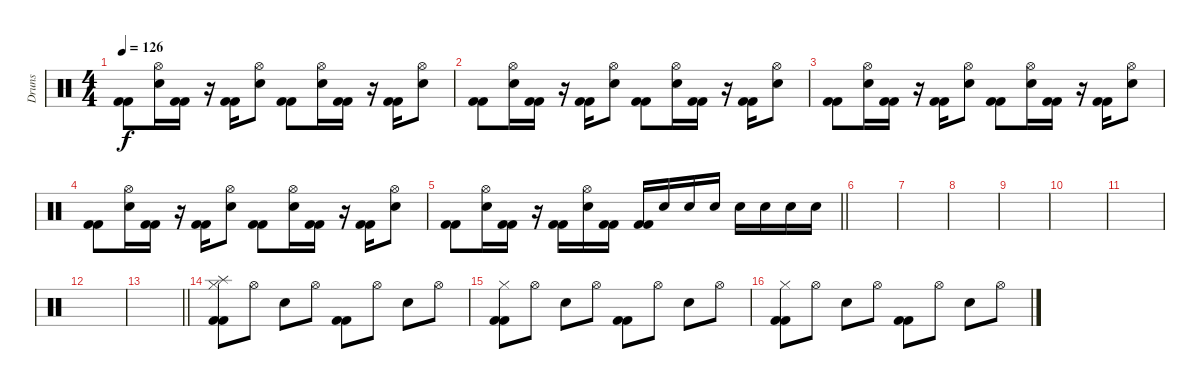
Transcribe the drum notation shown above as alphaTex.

\track ("Druns" "Druns") {instrument percussion}
\staff {score}
\articulation defaults
\ts (4 4)
\tempo 126
\clef neutral
\ks c
("Kick (hit) 2" "Kick (hit) 2").8{dy f} ("Hi-Hat (open)" "Electric Snare (hit)").16 ("Kick (hit) 2" "Kick (hit) 2").16 r.16 ("Kick (hit) 2" "Kick (hit) 2").16 ("Hi-Hat (open)" "Electric Snare (hit)").8 ("Kick (hit) 2" "Kick (hit) 2").8 ("Hi-Hat (open)" "Electric Snare (hit)").16 ("Kick (hit) 2" "Kick (hit) 2").16 r.16 ("Kick (hit) 2" "Kick (hit) 2").16 ("Hi-Hat (open)" "Electric Snare (hit)").8 |
("Kick (hit) 2" "Kick (hit) 2").8 ("Hi-Hat (open)" "Electric Snare (hit)").16 ("Kick (hit) 2" "Kick (hit) 2").16 r.16 ("Kick (hit) 2" "Kick (hit) 2").16 ("Hi-Hat (open)" "Electric Snare (hit)").8 ("Kick (hit) 2" "Kick (hit) 2").8 ("Hi-Hat (open)" "Electric Snare (hit)").16 ("Kick (hit) 2" "Kick (hit) 2").16 r.16 ("Kick (hit) 2" "Kick (hit) 2").16 ("Hi-Hat (open)" "Electric Snare (hit)").8 |
("Kick (hit) 2" "Kick (hit) 2").8 ("Hi-Hat (open)" "Electric Snare (hit)").16 ("Kick (hit) 2" "Kick (hit) 2").16 r.16 ("Kick (hit) 2" "Kick (hit) 2").16 ("Hi-Hat (open)" "Electric Snare (hit)").8 ("Kick (hit) 2" "Kick (hit) 2").8 ("Hi-Hat (open)" "Electric Snare (hit)").16 ("Kick (hit) 2" "Kick (hit) 2").16 r.16 ("Kick (hit) 2" "Kick (hit) 2").16 ("Hi-Hat (open)" "Electric Snare (hit)").8 |
("Kick (hit) 2" "Kick (hit) 2").8 ("Hi-Hat (open)" "Electric Snare (hit)").16 ("Kick (hit) 2" "Kick (hit) 2").16 r.16 ("Kick (hit) 2" "Kick (hit) 2").16 ("Hi-Hat (open)" "Electric Snare (hit)").8 ("Kick (hit) 2" "Kick (hit) 2").8 ("Hi-Hat (open)" "Electric Snare (hit)").16 ("Kick (hit) 2" "Kick (hit) 2").16 r.16 ("Kick (hit) 2" "Kick (hit) 2").16 ("Hi-Hat (open)" "Electric Snare (hit)").8 |
\barLineRight lightlight
("Kick (hit) 2" "Kick (hit) 2").8 ("Hi-Hat (open)" "Electric Snare (hit)").16 ("Kick (hit) 2" "Kick (hit) 2").16 r.16 ("Kick (hit) 2" "Kick (hit) 2").16 ("Hi-Hat (open)" "Electric Snare (hit)").16 ("Kick (hit) 2" "Kick (hit) 2").16 ("Kick (hit) 2" "Kick (hit) 2").16 "Electric Snare (hit)".16 "Electric Snare (hit)".16 "Electric Snare (hit)".16 "Electric Snare (hit)".16 "Electric Snare (hit)".16 "Electric Snare (hit)".16 "Electric Snare (hit)".16 |
|
|
|
|
|
|
|
\barLineRight lightlight
|
\section ("" "")
("Splash (hit)" "Hi-Hat (closed)" "Kick (hit) 2" "Kick (hit) 2").8 "Hi-Hat (open)".8 "Electric Snare (hit)".8 "Hi-Hat (open)".8 ("Kick (hit) 2" "Kick (hit) 2").8 "Hi-Hat (open)".8 "Electric Snare (hit)".8 "Hi-Hat (open)".8 |
("Hi-Hat (closed)" "Kick (hit) 2" "Kick (hit) 2").8 "Hi-Hat (open)".8 "Electric Snare (hit)".8 "Hi-Hat (open)".8 ("Kick (hit) 2" "Kick (hit) 2").8 "Hi-Hat (open)".8 "Electric Snare (hit)".8 "Hi-Hat (open)".8 |
("Hi-Hat (closed)" "Kick (hit) 2" "Kick (hit) 2").8 "Hi-Hat (open)".8 "Electric Snare (hit)".8 "Hi-Hat (open)".8 ("Kick (hit) 2" "Kick (hit) 2").8 "Hi-Hat (open)".8 "Electric Snare (hit)".8 "Hi-Hat (open)".8
